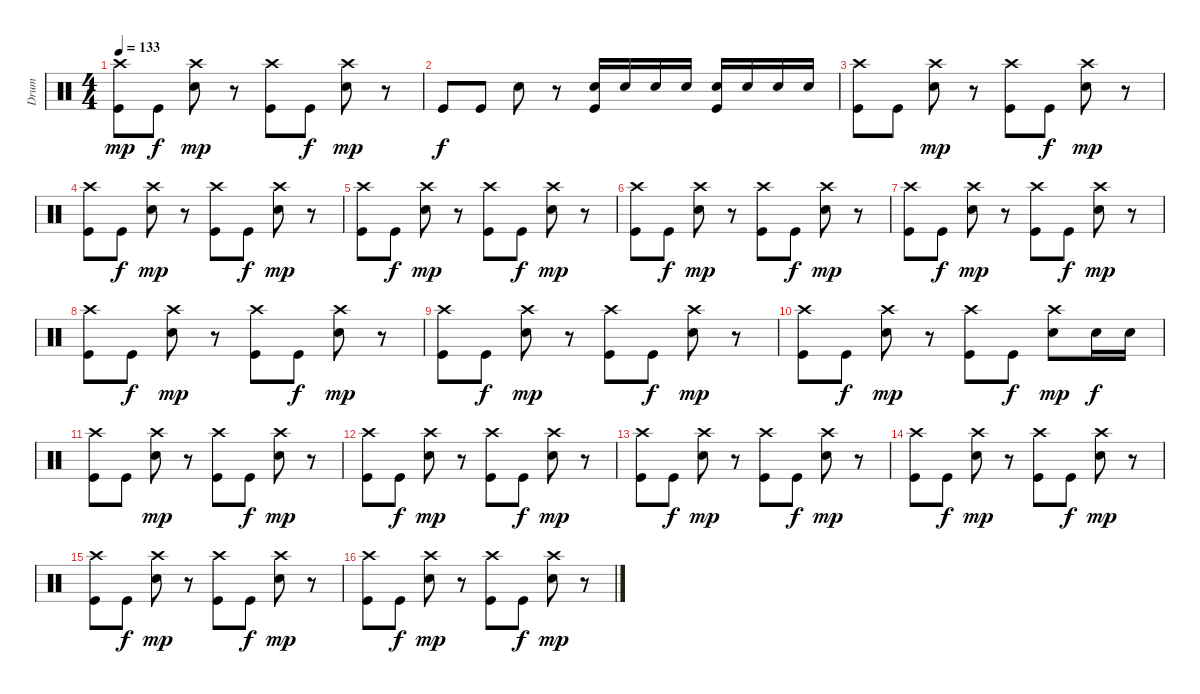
\track ("Drum" "Drum") {instrument percussion}
\staff {score}
\articulation defaults
\ts (4 4)
\tempo 133
\clef neutral
\ks c
("Crash high (hit)" "Kick (hit)").8{dy mp} "Kick (hit)".8{dy f} ("Crash high (hit)" "Snare (hit) 2").8{dy mp} r.8 ("Crash high (hit)" "Kick (hit)").8 "Kick (hit)".8{dy f} ("Crash high (hit)" "Snare (hit) 2").8{dy mp} r.8 |
"Kick (hit)".8{dy f} "Kick (hit)".8 "Snare (hit) 2".8 r.8 ("Snare (hit) 2" "Kick (hit)").16 "Snare (hit) 2".16 "Snare (hit) 2".16 "Snare (hit) 2".16 ("Snare (hit) 2" "Kick (hit)").16 "Snare (hit) 2".16 "Snare (hit) 2".16 "Snare (hit) 2".16 |
("Crash high (hit)" "Kick (hit)").8 "Kick (hit)".8 ("Crash high (hit)" "Snare (hit) 2").8{dy mp} r.8 ("Crash high (hit)" "Kick (hit)").8 "Kick (hit)".8{dy f} ("Crash high (hit)" "Snare (hit) 2").8{dy mp} r.8 |
("Crash high (hit)" "Kick (hit)").8 "Kick (hit)".8{dy f} ("Crash high (hit)" "Snare (hit) 2").8{dy mp} r.8 ("Crash high (hit)" "Kick (hit)").8 "Kick (hit)".8{dy f} ("Crash high (hit)" "Snare (hit) 2").8{dy mp} r.8 |
("Crash high (hit)" "Kick (hit)").8 "Kick (hit)".8{dy f} ("Crash high (hit)" "Snare (hit) 2").8{dy mp} r.8 ("Crash high (hit)" "Kick (hit)").8 "Kick (hit)".8{dy f} ("Crash high (hit)" "Snare (hit) 2").8{dy mp} r.8 |
("Crash high (hit)" "Kick (hit)").8 "Kick (hit)".8{dy f} ("Crash high (hit)" "Snare (hit) 2").8{dy mp} r.8 ("Crash high (hit)" "Kick (hit)").8 "Kick (hit)".8{dy f} ("Crash high (hit)" "Snare (hit) 2").8{dy mp} r.8 |
("Crash high (hit)" "Kick (hit)").8 "Kick (hit)".8{dy f} ("Crash high (hit)" "Snare (hit) 2").8{dy mp} r.8 ("Crash high (hit)" "Kick (hit)").8 "Kick (hit)".8{dy f} ("Crash high (hit)" "Snare (hit) 2").8{dy mp} r.8 |
("Crash high (hit)" "Kick (hit)").8 "Kick (hit)".8{dy f} ("Crash high (hit)" "Snare (hit) 2").8{dy mp} r.8 ("Crash high (hit)" "Kick (hit)").8 "Kick (hit)".8{dy f} ("Crash high (hit)" "Snare (hit) 2").8{dy mp} r.8 |
("Crash high (hit)" "Kick (hit)").8 "Kick (hit)".8{dy f} ("Crash high (hit)" "Snare (hit) 2").8{dy mp} r.8 ("Crash high (hit)" "Kick (hit)").8 "Kick (hit)".8{dy f} ("Crash high (hit)" "Snare (hit) 2").8{dy mp} r.8 |
("Crash high (hit)" "Kick (hit)").8 "Kick (hit)".8{dy f} ("Crash high (hit)" "Snare (hit) 2").8{dy mp} r.8 ("Crash high (hit)" "Kick (hit)").8 "Kick (hit)".8{dy f} ("Crash high (hit)" "Snare (hit) 2").8{dy mp} "Snare (hit) 2".16{dy f} "Snare (hit) 2".16 |
("Crash high (hit)" "Kick (hit)").8 "Kick (hit)".8 ("Crash high (hit)" "Snare (hit) 2").8{dy mp} r.8 ("Crash high (hit)" "Kick (hit)").8 "Kick (hit)".8{dy f} ("Crash high (hit)" "Snare (hit) 2").8{dy mp} r.8 |
("Crash high (hit)" "Kick (hit)").8 "Kick (hit)".8{dy f} ("Crash high (hit)" "Snare (hit) 2").8{dy mp} r.8 ("Crash high (hit)" "Kick (hit)").8 "Kick (hit)".8{dy f} ("Crash high (hit)" "Snare (hit) 2").8{dy mp} r.8 |
("Crash high (hit)" "Kick (hit)").8 "Kick (hit)".8{dy f} ("Crash high (hit)" "Snare (hit) 2").8{dy mp} r.8 ("Crash high (hit)" "Kick (hit)").8 "Kick (hit)".8{dy f} ("Crash high (hit)" "Snare (hit) 2").8{dy mp} r.8 |
("Crash high (hit)" "Kick (hit)").8 "Kick (hit)".8{dy f} ("Crash high (hit)" "Snare (hit) 2").8{dy mp} r.8 ("Crash high (hit)" "Kick (hit)").8 "Kick (hit)".8{dy f} ("Crash high (hit)" "Snare (hit) 2").8{dy mp} r.8 |
("Crash high (hit)" "Kick (hit)").8 "Kick (hit)".8{dy f} ("Crash high (hit)" "Snare (hit) 2").8{dy mp} r.8 ("Crash high (hit)" "Kick (hit)").8 "Kick (hit)".8{dy f} ("Crash high (hit)" "Snare (hit) 2").8{dy mp} r.8 |
("Crash high (hit)" "Kick (hit)").8 "Kick (hit)".8{dy f} ("Crash high (hit)" "Snare (hit) 2").8{dy mp} r.8 ("Crash high (hit)" "Kick (hit)").8 "Kick (hit)".8{dy f} ("Crash high (hit)" "Snare (hit) 2").8{dy mp} r.8
